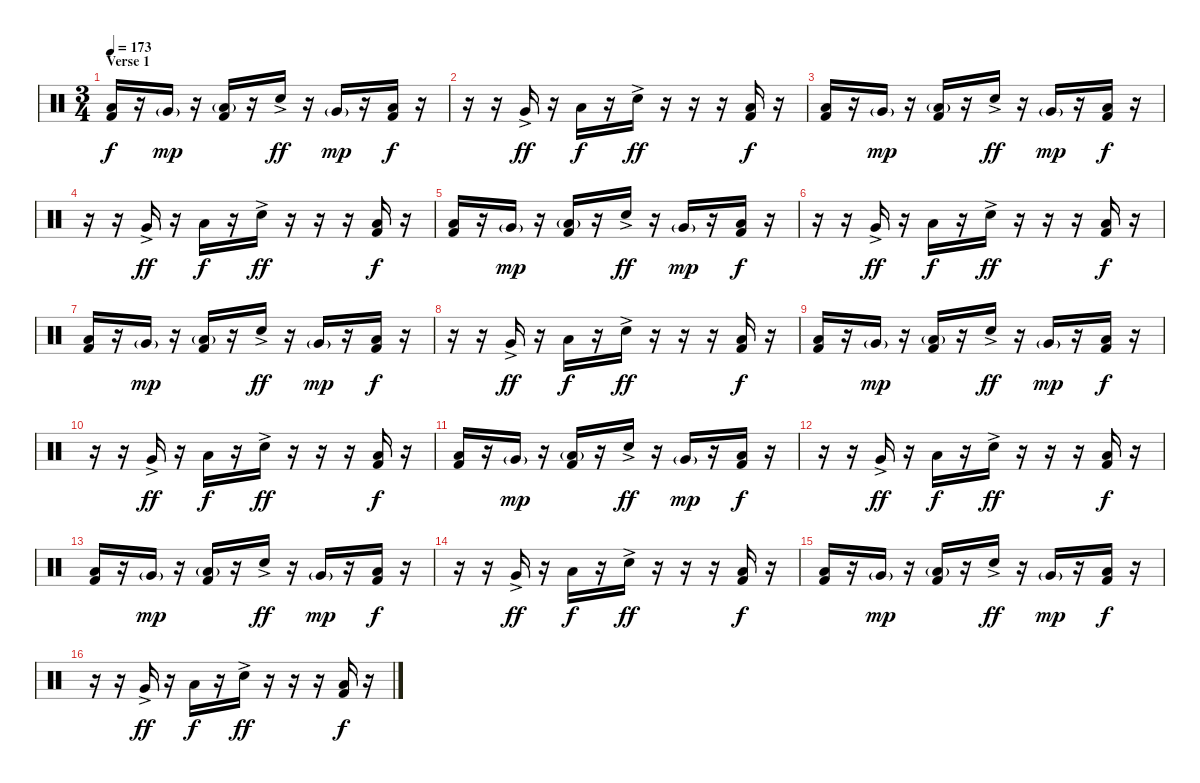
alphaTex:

\track (" " " ") {instrument percussion}
\staff {score}
\articulation defaults
\ts (3 4)
\section ("" "Verse 1")
\tempo 173
\clef neutral
\ks c
("Low Floor Tom (hit)" "Kick (hit) 2").16{dy f} r.16 "Very Low Tom (hit)"{g}.16{dy mp} r.16 ("Low Floor Tom (hit)"{g} "Kick (hit) 2").16 r.16 "Electric Snare (hit)"{ac}.16{dy ff} r.16 "Very Low Tom (hit)"{g}.16{dy mp} r.16 ("Low Floor Tom (hit)" "Kick (hit) 2").16{dy f} r.16 |
r.16 r.16 "Very Low Tom (hit)"{ac}.16{dy ff} r.16 "Low Floor Tom (hit)".16{dy f} r.16 "Electric Snare (hit)"{ac}.16{dy ff} r.16 r.16 r.16 ("Low Floor Tom (hit)" "Kick (hit) 2").16{dy f} r.16 |
("Low Floor Tom (hit)" "Kick (hit) 2").16 r.16 "Very Low Tom (hit)"{g}.16{dy mp} r.16 ("Low Floor Tom (hit)"{g} "Kick (hit) 2").16 r.16 "Electric Snare (hit)"{ac}.16{dy ff} r.16 "Very Low Tom (hit)"{g}.16{dy mp} r.16 ("Low Floor Tom (hit)" "Kick (hit) 2").16{dy f} r.16 |
r.16 r.16 "Very Low Tom (hit)"{ac}.16{dy ff} r.16 "Low Floor Tom (hit)".16{dy f} r.16 "Electric Snare (hit)"{ac}.16{dy ff} r.16 r.16 r.16 ("Low Floor Tom (hit)" "Kick (hit) 2").16{dy f} r.16 |
("Low Floor Tom (hit)" "Kick (hit) 2").16 r.16 "Very Low Tom (hit)"{g}.16{dy mp} r.16 ("Low Floor Tom (hit)"{g} "Kick (hit) 2").16 r.16 "Electric Snare (hit)"{ac}.16{dy ff} r.16 "Very Low Tom (hit)"{g}.16{dy mp} r.16 ("Low Floor Tom (hit)" "Kick (hit) 2").16{dy f} r.16 |
r.16 r.16 "Very Low Tom (hit)"{ac}.16{dy ff} r.16 "Low Floor Tom (hit)".16{dy f} r.16 "Electric Snare (hit)"{ac}.16{dy ff} r.16 r.16 r.16 ("Low Floor Tom (hit)" "Kick (hit) 2").16{dy f} r.16 |
("Low Floor Tom (hit)" "Kick (hit) 2").16 r.16 "Very Low Tom (hit)"{g}.16{dy mp} r.16 ("Low Floor Tom (hit)"{g} "Kick (hit) 2").16 r.16 "Electric Snare (hit)"{ac}.16{dy ff} r.16 "Very Low Tom (hit)"{g}.16{dy mp} r.16 ("Low Floor Tom (hit)" "Kick (hit) 2").16{dy f} r.16 |
r.16 r.16 "Very Low Tom (hit)"{ac}.16{dy ff} r.16 "Low Floor Tom (hit)".16{dy f} r.16 "Electric Snare (hit)"{ac}.16{dy ff} r.16 r.16 r.16 ("Low Floor Tom (hit)" "Kick (hit) 2").16{dy f} r.16 |
("Low Floor Tom (hit)" "Kick (hit) 2").16 r.16 "Very Low Tom (hit)"{g}.16{dy mp} r.16 ("Low Floor Tom (hit)"{g} "Kick (hit) 2").16 r.16 "Electric Snare (hit)"{ac}.16{dy ff} r.16 "Very Low Tom (hit)"{g}.16{dy mp} r.16 ("Low Floor Tom (hit)" "Kick (hit) 2").16{dy f} r.16 |
r.16 r.16 "Very Low Tom (hit)"{ac}.16{dy ff} r.16 "Low Floor Tom (hit)".16{dy f} r.16 "Electric Snare (hit)"{ac}.16{dy ff} r.16 r.16 r.16 ("Low Floor Tom (hit)" "Kick (hit) 2").16{dy f} r.16 |
("Low Floor Tom (hit)" "Kick (hit) 2").16 r.16 "Very Low Tom (hit)"{g}.16{dy mp} r.16 ("Low Floor Tom (hit)"{g} "Kick (hit) 2").16 r.16 "Electric Snare (hit)"{ac}.16{dy ff} r.16 "Very Low Tom (hit)"{g}.16{dy mp} r.16 ("Low Floor Tom (hit)" "Kick (hit) 2").16{dy f} r.16 |
r.16 r.16 "Very Low Tom (hit)"{ac}.16{dy ff} r.16 "Low Floor Tom (hit)".16{dy f} r.16 "Electric Snare (hit)"{ac}.16{dy ff} r.16 r.16 r.16 ("Low Floor Tom (hit)" "Kick (hit) 2").16{dy f} r.16 |
("Low Floor Tom (hit)" "Kick (hit) 2").16 r.16 "Very Low Tom (hit)"{g}.16{dy mp} r.16 ("Low Floor Tom (hit)"{g} "Kick (hit) 2").16 r.16 "Electric Snare (hit)"{ac}.16{dy ff} r.16 "Very Low Tom (hit)"{g}.16{dy mp} r.16 ("Low Floor Tom (hit)" "Kick (hit) 2").16{dy f} r.16 |
r.16 r.16 "Very Low Tom (hit)"{ac}.16{dy ff} r.16 "Low Floor Tom (hit)".16{dy f} r.16 "Electric Snare (hit)"{ac}.16{dy ff} r.16 r.16 r.16 ("Low Floor Tom (hit)" "Kick (hit) 2").16{dy f} r.16 |
("Low Floor Tom (hit)" "Kick (hit) 2").16 r.16 "Very Low Tom (hit)"{g}.16{dy mp} r.16 ("Low Floor Tom (hit)"{g} "Kick (hit) 2").16 r.16 "Electric Snare (hit)"{ac}.16{dy ff} r.16 "Very Low Tom (hit)"{g}.16{dy mp} r.16 ("Low Floor Tom (hit)" "Kick (hit) 2").16{dy f} r.16 |
r.16 r.16 "Very Low Tom (hit)"{ac}.16{dy ff} r.16 "Low Floor Tom (hit)".16{dy f} r.16 "Electric Snare (hit)"{ac}.16{dy ff} r.16 r.16 r.16 ("Low Floor Tom (hit)" "Kick (hit) 2").16{dy f} r.16
